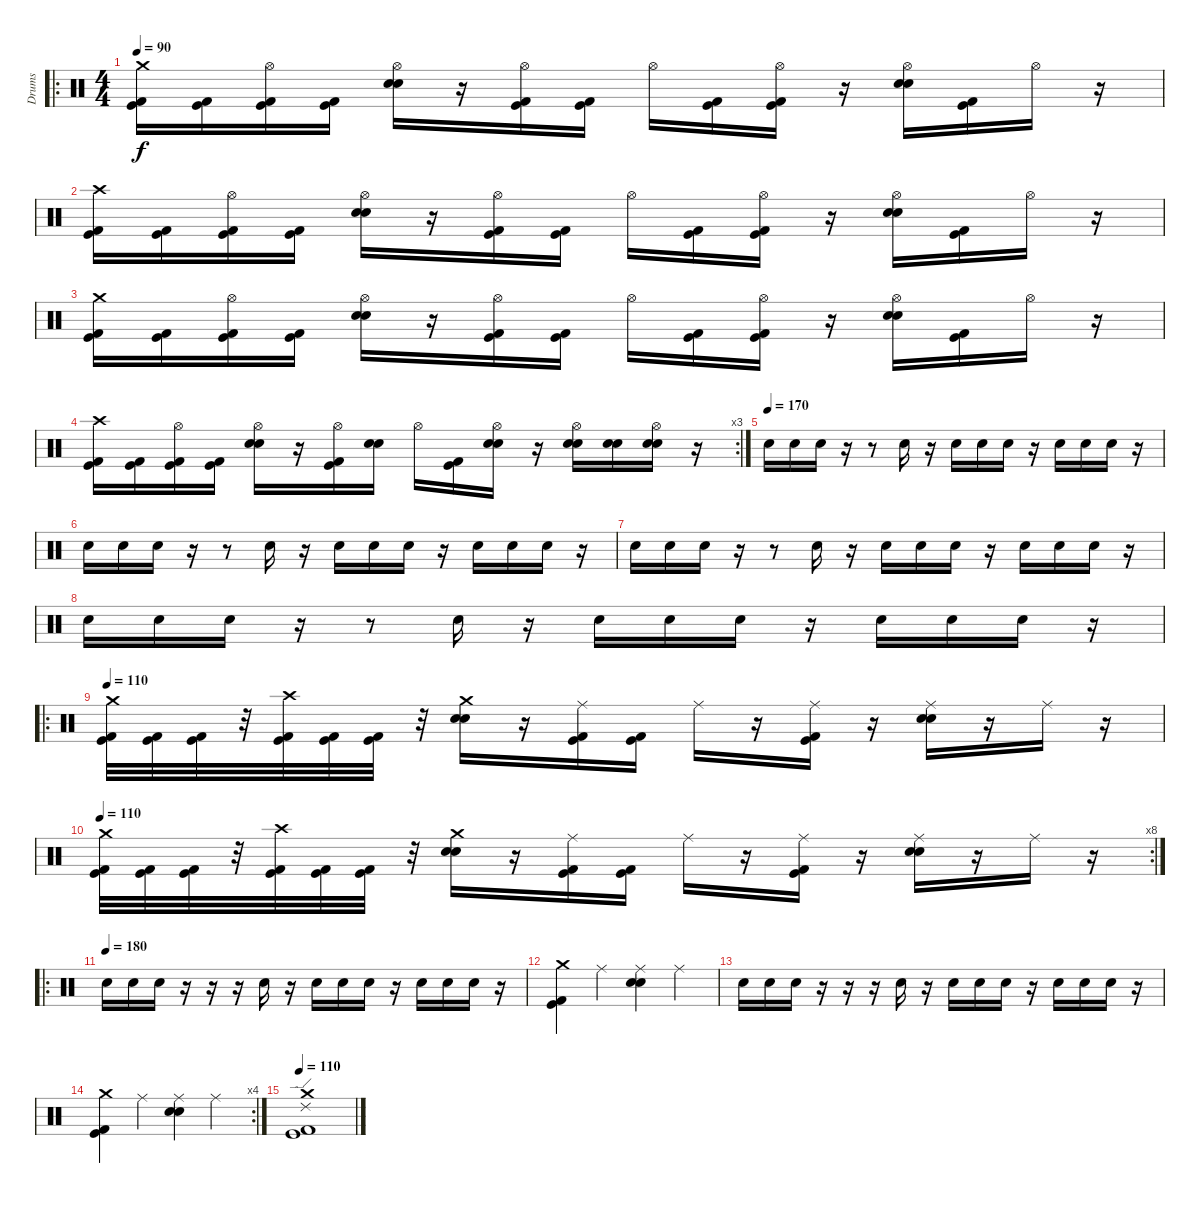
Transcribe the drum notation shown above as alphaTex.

\track ("Drums" "Drums") {instrument percussion}
\staff {score}
\articulation defaults
\ro
\ts (4 4)
\tempo 90
\clef neutral
\ks c
("Crash medium (hit)" "Kick (hit)" "Kick (hit) 2").16{dy f} ("Kick (hit)" "Kick (hit) 2").16 ("Hi-Hat (open)" "Kick (hit)" "Kick (hit) 2").16 ("Kick (hit)" "Kick (hit) 2").16 ("Hi-Hat (open)" "Snare (hit) 2" "Snare (hit) 2").16 r.16 ("Hi-Hat (open)" "Kick (hit)" "Kick (hit) 2").16 ("Kick (hit)" "Kick (hit) 2").16 "Hi-Hat (open)".16 ("Kick (hit)" "Kick (hit) 2").16 ("Hi-Hat (open)" "Kick (hit)" "Kick (hit) 2").16 r.16 ("Hi-Hat (open)" "Snare (hit) 2" "Snare (hit) 2").16 ("Kick (hit)" "Kick (hit) 2").16 "Hi-Hat (open)".16 r.16 |
("Crash high (hit)" "Kick (hit)" "Kick (hit) 2").16 ("Kick (hit)" "Kick (hit) 2").16 ("Hi-Hat (open)" "Kick (hit)" "Kick (hit) 2").16 ("Kick (hit)" "Kick (hit) 2").16 ("Hi-Hat (open)" "Snare (hit) 2" "Snare (hit) 2").16 r.16 ("Hi-Hat (open)" "Kick (hit)" "Kick (hit) 2").16 ("Kick (hit)" "Kick (hit) 2").16 "Hi-Hat (open)".16 ("Kick (hit)" "Kick (hit) 2").16 ("Hi-Hat (open)" "Kick (hit)" "Kick (hit) 2").16 r.16 ("Hi-Hat (open)" "Snare (hit) 2" "Snare (hit) 2").16 ("Kick (hit)" "Kick (hit) 2").16 "Hi-Hat (open)".16 r.16 |
("Crash medium (hit)" "Kick (hit)" "Kick (hit) 2").16 ("Kick (hit)" "Kick (hit) 2").16 ("Hi-Hat (open)" "Kick (hit)" "Kick (hit) 2").16 ("Kick (hit)" "Kick (hit) 2").16 ("Hi-Hat (open)" "Snare (hit) 2" "Snare (hit) 2").16 r.16 ("Hi-Hat (open)" "Kick (hit)" "Kick (hit) 2").16 ("Kick (hit)" "Kick (hit) 2").16 "Hi-Hat (open)".16 ("Kick (hit)" "Kick (hit) 2").16 ("Hi-Hat (open)" "Kick (hit)" "Kick (hit) 2").16 r.16 ("Hi-Hat (open)" "Snare (hit) 2" "Snare (hit) 2").16 ("Kick (hit)" "Kick (hit) 2").16 "Hi-Hat (open)".16 r.16 |
\rc 3
("Crash high (hit)" "Kick (hit)" "Kick (hit) 2").16 ("Kick (hit)" "Kick (hit) 2").16 ("Hi-Hat (open)" "Kick (hit)" "Kick (hit) 2").16 ("Kick (hit)" "Kick (hit) 2").16 ("Hi-Hat (open)" "Snare (hit) 2" "Snare (hit) 2").16 r.16 ("Hi-Hat (open)" "Kick (hit)" "Kick (hit) 2").16 ("Snare (hit) 2" "Snare (hit) 2").16 "Hi-Hat (open)".16 ("Kick (hit)" "Kick (hit) 2").16 ("Hi-Hat (open)" "Snare (hit) 2" "Snare (hit) 2").16 r.16 ("Hi-Hat (open)" "Snare (hit) 2" "Snare (hit) 2").16 ("Snare (hit) 2" "Snare (hit) 2").16 ("Hi-Hat (open)" "Snare (hit) 2" "Snare (hit) 2").16 r.16 |
\tempo (170)
"Snare (hit) 2".16 "Snare (hit) 2".16 "Snare (hit) 2".16 r.16 r.8 "Snare (hit) 2".16 r.16 "Snare (hit) 2".16 "Snare (hit) 2".16 "Snare (hit) 2".16 r.16 "Snare (hit) 2".16 "Snare (hit) 2".16 "Snare (hit) 2".16 r.16 |
"Snare (hit) 2".16 "Snare (hit) 2".16 "Snare (hit) 2".16 r.16 r.8 "Snare (hit) 2".16 r.16 "Snare (hit) 2".16 "Snare (hit) 2".16 "Snare (hit) 2".16 r.16 "Snare (hit) 2".16 "Snare (hit) 2".16 "Snare (hit) 2".16 r.16 |
"Snare (hit) 2".16 "Snare (hit) 2".16 "Snare (hit) 2".16 r.16 r.8 "Snare (hit) 2".16 r.16 "Snare (hit) 2".16 "Snare (hit) 2".16 "Snare (hit) 2".16 r.16 "Snare (hit) 2".16 "Snare (hit) 2".16 "Snare (hit) 2".16 r.16 |
"Snare (hit) 2".16 "Snare (hit) 2".16 "Snare (hit) 2".16 r.16 r.8 "Snare (hit) 2".16 r.16 "Snare (hit) 2".16 "Snare (hit) 2".16 "Snare (hit) 2".16 r.16 "Snare (hit) 2".16 "Snare (hit) 2".16 "Snare (hit) 2".16 r.16 |
\ro
\tempo 110
("Crash medium (hit)" "Kick (hit)" "Kick (hit) 2").32 ("Kick (hit)" "Kick (hit) 2").32 ("Kick (hit)" "Kick (hit) 2").32 r.32 ("Crash high (hit)" "Kick (hit)" "Kick (hit) 2").32 ("Kick (hit)" "Kick (hit) 2").32 ("Kick (hit)" "Kick (hit) 2").32 r.32 ("Crash medium (hit)" "Snare (hit) 2" "Snare (hit) 2").16 r.16 ("Ride (middle)" "Kick (hit)" "Kick (hit) 2").16 ("Kick (hit)" "Kick (hit) 2").16 "Ride (middle)".16 r.16 ("Ride (middle)" "Kick (hit)" "Kick (hit) 2").16 r.16 ("Ride (middle)" "Snare (hit) 2" "Snare (hit) 2").16 r.16 "Ride (middle)".16 r.16 |
\rc 8
\tempo 110
("Crash medium (hit)" "Kick (hit)" "Kick (hit) 2").32 ("Kick (hit)" "Kick (hit) 2").32 ("Kick (hit)" "Kick (hit) 2").32 r.32 ("Crash high (hit)" "Kick (hit)" "Kick (hit) 2").32 ("Kick (hit)" "Kick (hit) 2").32 ("Kick (hit)" "Kick (hit) 2").32 r.32 ("Crash medium (hit)" "Snare (hit) 2" "Snare (hit) 2").16 r.16 ("Ride (middle)" "Kick (hit)" "Kick (hit) 2").16 ("Kick (hit)" "Kick (hit) 2").16 "Ride (middle)".16 r.16 ("Ride (middle)" "Kick (hit)" "Kick (hit) 2").16 r.16 ("Ride (middle)" "Snare (hit) 2" "Snare (hit) 2").16 r.16 "Ride (middle)".16 r.16 |
\ro
\tempo (180)
"Snare (hit) 2".16 "Snare (hit) 2".16 "Snare (hit) 2".16 r.16 r.16 r.16 "Snare (hit) 2".16 r.16 "Snare (hit) 2".16 "Snare (hit) 2".16 "Snare (hit) 2".16 r.16 "Snare (hit) 2".16 "Snare (hit) 2".16 "Snare (hit) 2".16 r.16 |
("Crash medium (hit)" "Kick (hit)" "Kick (hit) 2").4 "Ride (middle)".4 ("Ride (middle)" "Snare (hit) 2" "Snare (hit) 2").4 "Ride (middle)".4 |
"Snare (hit) 2".16 "Snare (hit) 2".16 "Snare (hit) 2".16 r.16 r.16 r.16 "Snare (hit) 2".16 r.16 "Snare (hit) 2".16 "Snare (hit) 2".16 "Snare (hit) 2".16 r.16 "Snare (hit) 2".16 "Snare (hit) 2".16 "Snare (hit) 2".16 r.16 |
\rc 4
("Crash medium (hit)" "Kick (hit)" "Kick (hit) 2").4 "Ride (middle)".4 ("Ride (middle)" "Snare (hit) 2" "Snare (hit) 2").4 "Ride (middle)".4 |
\tempo 110
("Crash medium (hit)" "Ride (edge) 2" "Kick (hit)" "Kick (hit) 2").1
